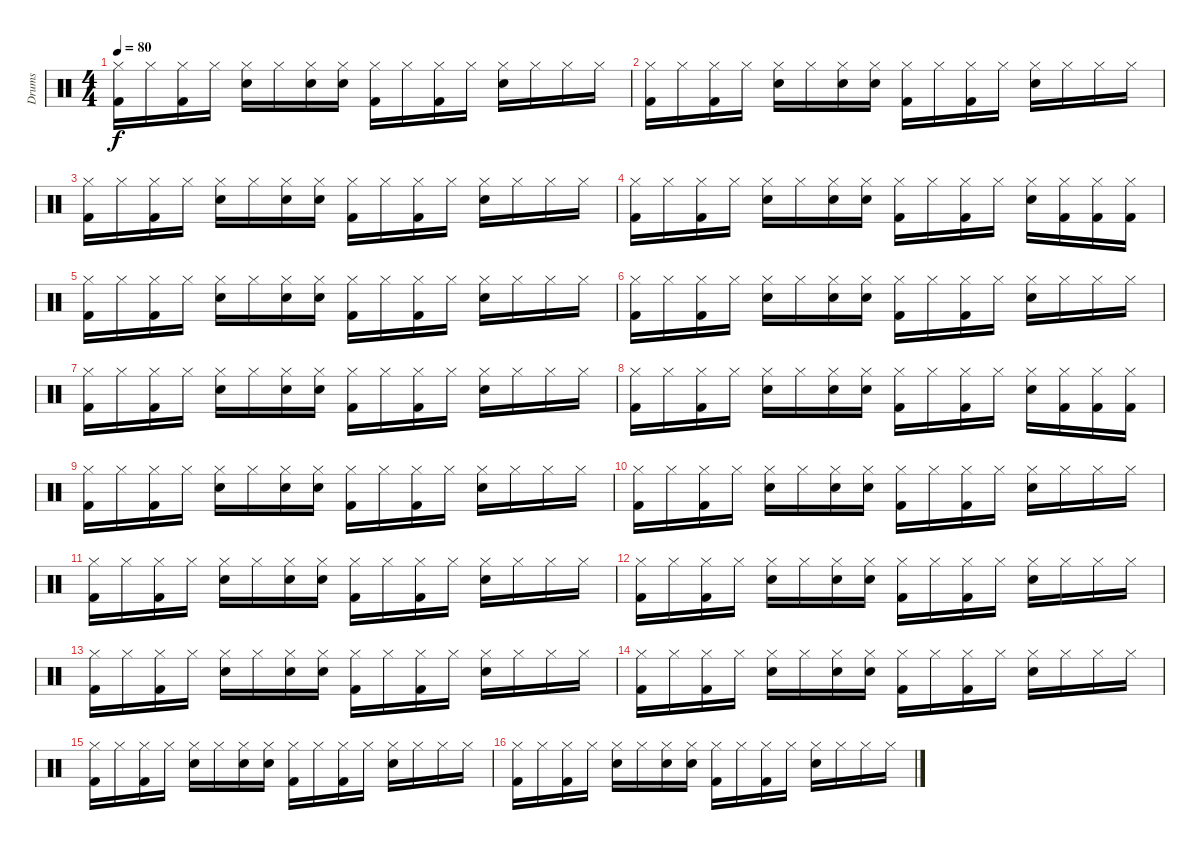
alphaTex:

\track ("Drums" "Drums") {instrument percussion}
\staff {score}
\articulation defaults
\ts (4 4)
\tempo 80
\clef neutral
\ks c
("Hi-Hat (closed)" "Kick (hit) 2").16{dy f} "Hi-Hat (closed)".16 ("Hi-Hat (closed)" "Kick (hit) 2").16 "Hi-Hat (closed)".16 ("Hi-Hat (closed)" "Electric Snare (hit)").16 "Hi-Hat (closed)".16 ("Hi-Hat (closed)" "Electric Snare (hit)").16 ("Hi-Hat (closed)" "Electric Snare (hit)").16 ("Hi-Hat (closed)" "Kick (hit) 2").16 "Hi-Hat (closed)".16 ("Hi-Hat (closed)" "Kick (hit) 2").16 "Hi-Hat (closed)".16 ("Hi-Hat (closed)" "Electric Snare (hit)").16 "Hi-Hat (closed)".16 "Hi-Hat (closed)".16 "Hi-Hat (closed)".16 |
("Hi-Hat (closed)" "Kick (hit) 2").16 "Hi-Hat (closed)".16 ("Hi-Hat (closed)" "Kick (hit) 2").16 "Hi-Hat (closed)".16 ("Hi-Hat (closed)" "Electric Snare (hit)").16 "Hi-Hat (closed)".16 ("Hi-Hat (closed)" "Electric Snare (hit)").16 ("Hi-Hat (closed)" "Electric Snare (hit)").16 ("Hi-Hat (closed)" "Kick (hit) 2").16 "Hi-Hat (closed)".16 ("Hi-Hat (closed)" "Kick (hit) 2").16 "Hi-Hat (closed)".16 ("Hi-Hat (closed)" "Electric Snare (hit)").16 "Hi-Hat (closed)".16 "Hi-Hat (closed)".16 "Hi-Hat (closed)".16 |
("Hi-Hat (closed)" "Kick (hit) 2").16 "Hi-Hat (closed)".16 ("Hi-Hat (closed)" "Kick (hit) 2").16 "Hi-Hat (closed)".16 ("Hi-Hat (closed)" "Electric Snare (hit)").16 "Hi-Hat (closed)".16 ("Hi-Hat (closed)" "Electric Snare (hit)").16 ("Hi-Hat (closed)" "Electric Snare (hit)").16 ("Hi-Hat (closed)" "Kick (hit) 2").16 "Hi-Hat (closed)".16 ("Hi-Hat (closed)" "Kick (hit) 2").16 "Hi-Hat (closed)".16 ("Hi-Hat (closed)" "Electric Snare (hit)").16 "Hi-Hat (closed)".16 "Hi-Hat (closed)".16 "Hi-Hat (closed)".16 |
("Hi-Hat (closed)" "Kick (hit) 2").16 "Hi-Hat (closed)".16 ("Hi-Hat (closed)" "Kick (hit) 2").16 "Hi-Hat (closed)".16 ("Hi-Hat (closed)" "Electric Snare (hit)").16 "Hi-Hat (closed)".16 ("Hi-Hat (closed)" "Electric Snare (hit)").16 ("Hi-Hat (closed)" "Electric Snare (hit)").16 ("Hi-Hat (closed)" "Kick (hit) 2").16 "Hi-Hat (closed)".16 ("Hi-Hat (closed)" "Kick (hit) 2").16 "Hi-Hat (closed)".16 ("Hi-Hat (closed)" "Electric Snare (hit)").16 ("Hi-Hat (closed)" "Kick (hit) 2").16 ("Hi-Hat (closed)" "Kick (hit) 2").16 ("Hi-Hat (closed)" "Kick (hit) 2").16 |
("Hi-Hat (closed)" "Kick (hit) 2").16 "Hi-Hat (closed)".16 ("Hi-Hat (closed)" "Kick (hit) 2").16 "Hi-Hat (closed)".16 ("Hi-Hat (closed)" "Electric Snare (hit)").16 "Hi-Hat (closed)".16 ("Hi-Hat (closed)" "Electric Snare (hit)").16 ("Hi-Hat (closed)" "Electric Snare (hit)").16 ("Hi-Hat (closed)" "Kick (hit) 2").16 "Hi-Hat (closed)".16 ("Hi-Hat (closed)" "Kick (hit) 2").16 "Hi-Hat (closed)".16 ("Hi-Hat (closed)" "Electric Snare (hit)").16 "Hi-Hat (closed)".16 "Hi-Hat (closed)".16 "Hi-Hat (closed)".16 |
("Hi-Hat (closed)" "Kick (hit) 2").16 "Hi-Hat (closed)".16 ("Hi-Hat (closed)" "Kick (hit) 2").16 "Hi-Hat (closed)".16 ("Hi-Hat (closed)" "Electric Snare (hit)").16 "Hi-Hat (closed)".16 ("Hi-Hat (closed)" "Electric Snare (hit)").16 ("Hi-Hat (closed)" "Electric Snare (hit)").16 ("Hi-Hat (closed)" "Kick (hit) 2").16 "Hi-Hat (closed)".16 ("Hi-Hat (closed)" "Kick (hit) 2").16 "Hi-Hat (closed)".16 ("Hi-Hat (closed)" "Electric Snare (hit)").16 "Hi-Hat (closed)".16 "Hi-Hat (closed)".16 "Hi-Hat (closed)".16 |
("Hi-Hat (closed)" "Kick (hit) 2").16 "Hi-Hat (closed)".16 ("Hi-Hat (closed)" "Kick (hit) 2").16 "Hi-Hat (closed)".16 ("Hi-Hat (closed)" "Electric Snare (hit)").16 "Hi-Hat (closed)".16 ("Hi-Hat (closed)" "Electric Snare (hit)").16 ("Hi-Hat (closed)" "Electric Snare (hit)").16 ("Hi-Hat (closed)" "Kick (hit) 2").16 "Hi-Hat (closed)".16 ("Hi-Hat (closed)" "Kick (hit) 2").16 "Hi-Hat (closed)".16 ("Hi-Hat (closed)" "Electric Snare (hit)").16 "Hi-Hat (closed)".16 "Hi-Hat (closed)".16 "Hi-Hat (closed)".16 |
("Hi-Hat (closed)" "Kick (hit) 2").16 "Hi-Hat (closed)".16 ("Hi-Hat (closed)" "Kick (hit) 2").16 "Hi-Hat (closed)".16 ("Hi-Hat (closed)" "Electric Snare (hit)").16 "Hi-Hat (closed)".16 ("Hi-Hat (closed)" "Electric Snare (hit)").16 ("Hi-Hat (closed)" "Electric Snare (hit)").16 ("Hi-Hat (closed)" "Kick (hit) 2").16 "Hi-Hat (closed)".16 ("Hi-Hat (closed)" "Kick (hit) 2").16 "Hi-Hat (closed)".16 ("Hi-Hat (closed)" "Electric Snare (hit)").16 ("Hi-Hat (closed)" "Kick (hit) 2").16 ("Hi-Hat (closed)" "Kick (hit) 2").16 ("Hi-Hat (closed)" "Kick (hit) 2").16 |
("Hi-Hat (closed)" "Kick (hit) 2").16 "Hi-Hat (closed)".16 ("Hi-Hat (closed)" "Kick (hit) 2").16 "Hi-Hat (closed)".16 ("Hi-Hat (closed)" "Electric Snare (hit)").16 "Hi-Hat (closed)".16 ("Hi-Hat (closed)" "Electric Snare (hit)").16 ("Hi-Hat (closed)" "Electric Snare (hit)").16 ("Hi-Hat (closed)" "Kick (hit) 2").16 "Hi-Hat (closed)".16 ("Hi-Hat (closed)" "Kick (hit) 2").16 "Hi-Hat (closed)".16 ("Hi-Hat (closed)" "Electric Snare (hit)").16 "Hi-Hat (closed)".16 "Hi-Hat (closed)".16 "Hi-Hat (closed)".16 |
("Hi-Hat (closed)" "Kick (hit) 2").16 "Hi-Hat (closed)".16 ("Hi-Hat (closed)" "Kick (hit) 2").16 "Hi-Hat (closed)".16 ("Hi-Hat (closed)" "Electric Snare (hit)").16 "Hi-Hat (closed)".16 ("Hi-Hat (closed)" "Electric Snare (hit)").16 ("Hi-Hat (closed)" "Electric Snare (hit)").16 ("Hi-Hat (closed)" "Kick (hit) 2").16 "Hi-Hat (closed)".16 ("Hi-Hat (closed)" "Kick (hit) 2").16 "Hi-Hat (closed)".16 ("Hi-Hat (closed)" "Electric Snare (hit)").16 "Hi-Hat (closed)".16 "Hi-Hat (closed)".16 "Hi-Hat (closed)".16 |
("Hi-Hat (closed)" "Kick (hit) 2").16 "Hi-Hat (closed)".16 ("Hi-Hat (closed)" "Kick (hit) 2").16 "Hi-Hat (closed)".16 ("Hi-Hat (closed)" "Electric Snare (hit)").16 "Hi-Hat (closed)".16 ("Hi-Hat (closed)" "Electric Snare (hit)").16 ("Hi-Hat (closed)" "Electric Snare (hit)").16 ("Hi-Hat (closed)" "Kick (hit) 2").16 "Hi-Hat (closed)".16 ("Hi-Hat (closed)" "Kick (hit) 2").16 "Hi-Hat (closed)".16 ("Hi-Hat (closed)" "Electric Snare (hit)").16 "Hi-Hat (closed)".16 "Hi-Hat (closed)".16 "Hi-Hat (closed)".16 |
("Hi-Hat (closed)" "Kick (hit) 2").16 "Hi-Hat (closed)".16 ("Hi-Hat (closed)" "Kick (hit) 2").16 "Hi-Hat (closed)".16 ("Hi-Hat (closed)" "Electric Snare (hit)").16 "Hi-Hat (closed)".16 ("Hi-Hat (closed)" "Electric Snare (hit)").16 ("Hi-Hat (closed)" "Electric Snare (hit)").16 ("Hi-Hat (closed)" "Kick (hit) 2").16 "Hi-Hat (closed)".16 ("Hi-Hat (closed)" "Kick (hit) 2").16 "Hi-Hat (closed)".16 ("Hi-Hat (closed)" "Electric Snare (hit)").16 "Hi-Hat (closed)".16 "Hi-Hat (closed)".16 "Hi-Hat (closed)".16 |
("Hi-Hat (closed)" "Kick (hit) 2").16 "Hi-Hat (closed)".16 ("Hi-Hat (closed)" "Kick (hit) 2").16 "Hi-Hat (closed)".16 ("Hi-Hat (closed)" "Electric Snare (hit)").16 "Hi-Hat (closed)".16 ("Hi-Hat (closed)" "Electric Snare (hit)").16 ("Hi-Hat (closed)" "Electric Snare (hit)").16 ("Hi-Hat (closed)" "Kick (hit) 2").16 "Hi-Hat (closed)".16 ("Hi-Hat (closed)" "Kick (hit) 2").16 "Hi-Hat (closed)".16 ("Hi-Hat (closed)" "Electric Snare (hit)").16 "Hi-Hat (closed)".16 "Hi-Hat (closed)".16 "Hi-Hat (closed)".16 |
("Hi-Hat (closed)" "Kick (hit) 2").16 "Hi-Hat (closed)".16 ("Hi-Hat (closed)" "Kick (hit) 2").16 "Hi-Hat (closed)".16 ("Hi-Hat (closed)" "Electric Snare (hit)").16 "Hi-Hat (closed)".16 ("Hi-Hat (closed)" "Electric Snare (hit)").16 ("Hi-Hat (closed)" "Electric Snare (hit)").16 ("Hi-Hat (closed)" "Kick (hit) 2").16 "Hi-Hat (closed)".16 ("Hi-Hat (closed)" "Kick (hit) 2").16 "Hi-Hat (closed)".16 ("Hi-Hat (closed)" "Electric Snare (hit)").16 "Hi-Hat (closed)".16 "Hi-Hat (closed)".16 "Hi-Hat (closed)".16 |
("Hi-Hat (closed)" "Kick (hit) 2").16 "Hi-Hat (closed)".16 ("Hi-Hat (closed)" "Kick (hit) 2").16 "Hi-Hat (closed)".16 ("Hi-Hat (closed)" "Electric Snare (hit)").16 "Hi-Hat (closed)".16 ("Hi-Hat (closed)" "Electric Snare (hit)").16 ("Hi-Hat (closed)" "Electric Snare (hit)").16 ("Hi-Hat (closed)" "Kick (hit) 2").16 "Hi-Hat (closed)".16 ("Hi-Hat (closed)" "Kick (hit) 2").16 "Hi-Hat (closed)".16 ("Hi-Hat (closed)" "Electric Snare (hit)").16 "Hi-Hat (closed)".16 "Hi-Hat (closed)".16 "Hi-Hat (closed)".16 |
("Hi-Hat (closed)" "Kick (hit) 2").16 "Hi-Hat (closed)".16 ("Hi-Hat (closed)" "Kick (hit) 2").16 "Hi-Hat (closed)".16 ("Hi-Hat (closed)" "Electric Snare (hit)").16 "Hi-Hat (closed)".16 ("Hi-Hat (closed)" "Electric Snare (hit)").16 ("Hi-Hat (closed)" "Electric Snare (hit)").16 ("Hi-Hat (closed)" "Kick (hit) 2").16 "Hi-Hat (closed)".16 ("Hi-Hat (closed)" "Kick (hit) 2").16 "Hi-Hat (closed)".16 ("Hi-Hat (closed)" "Electric Snare (hit)").16 "Hi-Hat (closed)".16 "Hi-Hat (closed)".16 "Hi-Hat (closed)".16
